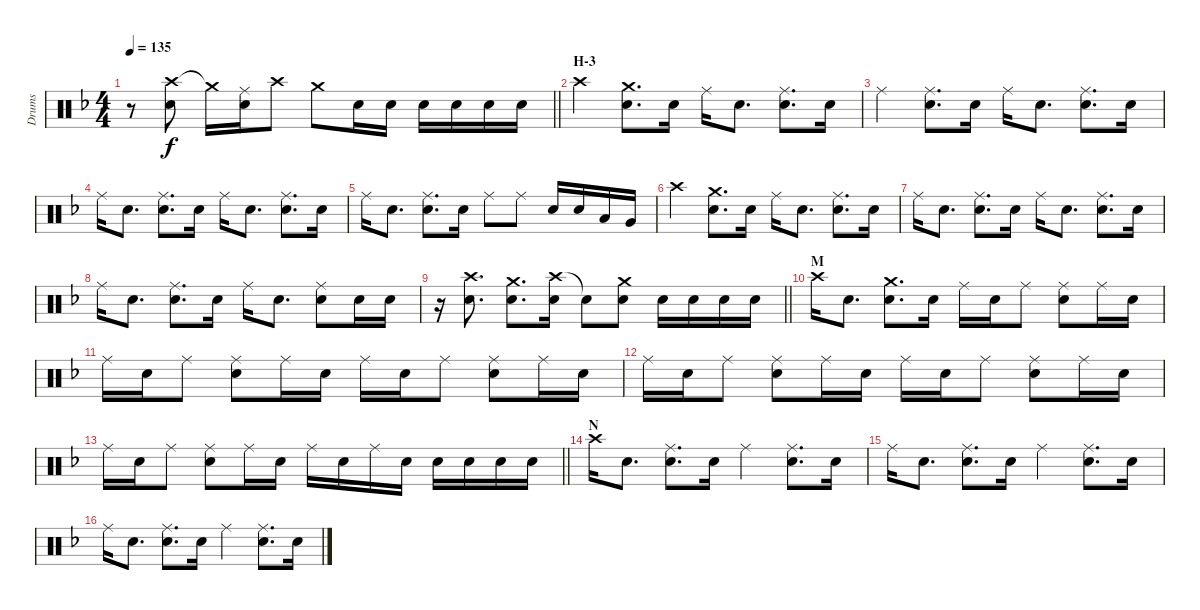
\track ("Drums" "Drums") {instrument percussion}
\staff {score}
\articulation defaults
\ts (4 4)
\tempo 135
\clef neutral
\barLineRight lightlight
\ks f
r.8{dy f} ("Crash high (hit)" "Snare (hit) 2").8 "Crash medium (hit)"{t}.16 ("Ride (middle)" "Snare (hit) 2").16 "Crash high (hit)".8 "Crash medium (hit)".8 "Snare (hit) 2".16 "Snare (hit) 2".16 "Snare (hit) 2".16 "Snare (hit) 2".16 "Snare (hit) 2".16 "Snare (hit) 2".16 |
\section ("" "H-3")
"Crash high (hit)".4 ("Crash medium (hit)" "Snare (hit) 2").8{d} "Snare (hit) 2".16 "Ride (middle)".16 "Snare (hit) 2".8{d} ("Ride (middle)" "Snare (hit) 2").8{d} "Snare (hit) 2".16 |
"Ride (middle)".4 ("Ride (middle)" "Snare (hit) 2").8{d} "Snare (hit) 2".16 "Ride (middle)".16 "Snare (hit) 2".8{d} ("Ride (middle)" "Snare (hit) 2").8{d} "Snare (hit) 2".16 |
"Ride (middle)".16 "Snare (hit) 2".8{d} ("Ride (middle)" "Snare (hit) 2").8{d} "Snare (hit) 2".16 "Ride (middle)".16 "Snare (hit) 2".8{d} ("Ride (middle)" "Snare (hit) 2").8{d} "Snare (hit) 2".16 |
"Ride (middle)".16 "Snare (hit) 2".8{d} ("Ride (middle)" "Snare (hit) 2").8{d} "Snare (hit) 2".16 "Ride (middle)".8 "Ride (middle)".8 "Snare (hit) 2".16 "Snare (hit) 2".16 "Low Tom (hit)".16 "Very Low Tom (hit)".16 |
"Crash high (hit)".4 ("Crash medium (hit)" "Snare (hit) 2").8{d} "Snare (hit) 2".16 "Ride (middle)".16 "Snare (hit) 2".8{d} ("Ride (middle)" "Snare (hit) 2").8{d} "Snare (hit) 2".16 |
"Ride (middle)".16 "Snare (hit) 2".8{d} ("Ride (middle)" "Snare (hit) 2").8{d} "Snare (hit) 2".16 "Ride (middle)".16 "Snare (hit) 2".8{d} ("Ride (middle)" "Snare (hit) 2").8{d} "Snare (hit) 2".16 |
"Ride (middle)".16 "Snare (hit) 2".8{d} ("Ride (middle)" "Snare (hit) 2").8{d} "Snare (hit) 2".16 "Ride (middle)".16 "Snare (hit) 2".8{d} ("Ride (middle)" "Snare (hit) 2").8 "Snare (hit) 2".16 "Snare (hit) 2".16 |
\barLineRight lightlight
r.16 ("Crash high (hit)" "Snare (hit) 2").8{d} ("Crash medium (hit)" "Snare (hit) 2").8{d} ("Crash high (hit)" "Snare (hit) 2").16 "Snare (hit)"{t}.8 ("Crash medium (hit)" "Snare (hit) 2").8 "Snare (hit) 2".16 "Snare (hit) 2".16 "Snare (hit) 2".16 "Snare (hit) 2".16 |
\section ("" "M")
"Crash high (hit)".16 "Snare (hit) 2".8{d} ("Crash medium (hit)" "Snare (hit) 2").8{d} "Snare (hit) 2".16 "Ride (middle)".16 "Snare (hit) 2".16 "Ride (middle)".8 ("Ride (middle)" "Snare (hit) 2").8 "Ride (middle)".16 "Snare (hit) 2".16 |
"Ride (middle)".16 "Snare (hit) 2".16 "Ride (middle)".8 ("Ride (middle)" "Snare (hit) 2").8 "Ride (middle)".16 "Snare (hit) 2".16 "Ride (middle)".16 "Snare (hit) 2".16 "Ride (middle)".8 ("Ride (middle)" "Snare (hit) 2").8 "Ride (middle)".16 "Snare (hit) 2".16 |
"Ride (middle)".16 "Snare (hit) 2".16 "Ride (middle)".8 ("Ride (middle)" "Snare (hit) 2").8 "Ride (middle)".16 "Snare (hit) 2".16 "Ride (middle)".16 "Snare (hit) 2".16 "Ride (middle)".8 ("Ride (middle)" "Snare (hit) 2").8 "Ride (middle)".16 "Snare (hit) 2".16 |
\barLineRight lightlight "Ride (middle)".16 "Snare (hit) 2".16 "Ride (middle)".8
("Ride (middle)" "Snare (hit) 2").8 "Ride (middle)".16 "Snare (hit) 2".16 "Ride (middle)".16 "Snare (hit) 2".16 "Ride (middle)".16 "Snare (hit) 2".16 "Snare (hit) 2".16 "Snare (hit) 2".16 "Snare (hit) 2".16 "Snare (hit) 2".16 |
\section ("" "N")
"Crash high (hit)".16 "Snare (hit) 2".8{d} ("Ride (middle)" "Snare (hit) 2").8{d} "Snare (hit) 2".16 "Ride (middle)".4 ("Snare (hit) 2" "Ride (middle)").8{d} "Snare (hit) 2".16 |
"Ride (middle)".16 "Snare (hit) 2".8{d} ("Ride (middle)" "Snare (hit) 2").8{d} "Snare (hit) 2".16 "Ride (middle)".4 ("Ride (middle)" "Snare (hit) 2").8{d} "Snare (hit) 2".16 |
"Ride (middle)".16 "Snare (hit) 2".8{d} ("Ride (middle)" "Snare (hit) 2").8{d} "Snare (hit) 2".16 "Ride (middle)".4 ("Ride (middle)" "Snare (hit) 2").8{d} "Snare (hit) 2".16
